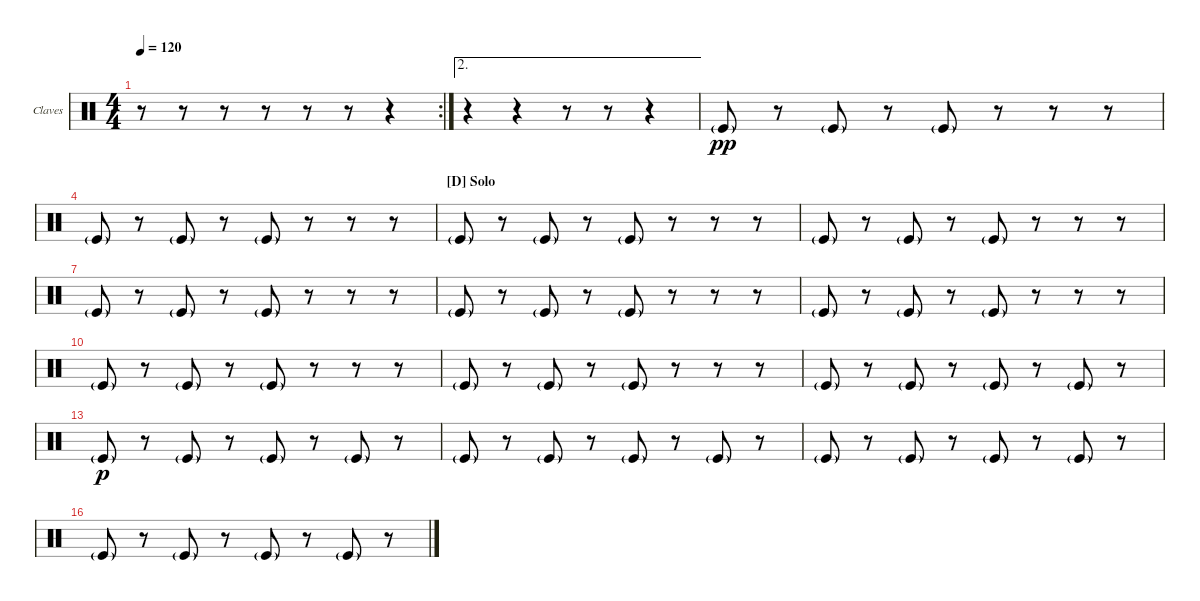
\bracketExtendMode nobrackets
\firstSystemTrackNameOrientation horizontal
\otherSystemsTrackNameOrientation horizontal
\defaultBarNumberDisplay FirstOfSystem
\track ("Claves" "Claves") {instrument percussion}
\staff {score}
\articulation defaults
\rc 2
\ts (4 4)
\tempo 120
\clef neutral
\scale
0.267857
\ks c
r.8{dy p} r.8 r.8 r.8 r.8 r.8 r.4 |
\ae 2
\scale
0.236364 r.4 r.4 r.8 r.8 r.4 |
\scale
0.25 "Kick (hit)"{g}.8{dy pp} r.8 "Kick (hit)"{g}.8 r.8 "Kick (hit)"{g}.8 r.8 r.8 r.8 |
\scale
0.25 "Kick (hit)"{g}.8 r.8 "Kick (hit)"{g}.8 r.8 "Kick (hit)"{g}.8 r.8 r.8 r.8 |
\section ("D" "Solo")
\scale
0.25 "Kick (hit)"{g}.8 r.8 "Kick (hit)"{g}.8 r.8 "Kick (hit)"{g}.8 r.8 r.8 r.8 |
\scale
0.25 "Kick (hit)"{g}.8 r.8 "Kick (hit)"{g}.8 r.8 "Kick (hit)"{g}.8 r.8 r.8 r.8 |
\scale
0.25 "Kick (hit)"{g}.8 r.8 "Kick (hit)"{g}.8 r.8 "Kick (hit)"{g}.8 r.8 r.8 r.8 |
\scale
0.25 "Kick (hit)"{g}.8 r.8 "Kick (hit)"{g}.8 r.8 "Kick (hit)"{g}.8 r.8 r.8 r.8 |
\scale
0.25 "Kick (hit)"{g}.8 r.8 "Kick (hit)"{g}.8 r.8 "Kick (hit)"{g}.8 r.8 r.8 r.8 |
\scale
0.25 "Kick (hit)"{g}.8 r.8 "Kick (hit)"{g}.8 r.8 "Kick (hit)"{g}.8 r.8 r.8 r.8 |
\scale
0.394904 "Kick (hit)"{g}.8 r.8 "Kick (hit)"{g}.8 r.8 "Kick (hit)"{g}.8 r.8 r.8 r.8 |
\scale
0.191083 "Kick (hit)"{g}.8 r.8 "Kick (hit)"{g}.8 r.8 "Kick (hit)"{g}.8 r.8 "Kick (hit)"{g}.8 r.8 |
\scale
0.191083 "Kick (hit)"{g}.8{dy p} r.8 "Kick (hit)"{g}.8 r.8 "Kick (hit)"{g}.8 r.8 "Kick (hit)"{g}.8 r.8 |
\scale
0.22293 "Kick (hit)"{g}.8 r.8 "Kick (hit)"{g}.8 r.8 "Kick (hit)"{g}.8 r.8 "Kick (hit)"{g}.8 r.8 |
\scale
0.25 "Kick (hit)"{g}.8 r.8 "Kick (hit)"{g}.8 r.8 "Kick (hit)"{g}.8 r.8 "Kick (hit)"{g}.8 r.8 |
\scale
0.25 "Kick (hit)"{g}.8 r.8 "Kick (hit)"{g}.8 r.8 "Kick (hit)"{g}.8 r.8 "Kick (hit)"{g}.8 r.8
